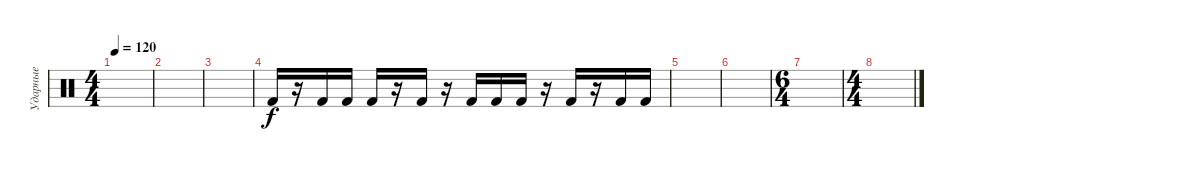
\track ("Ударные" "Ударные") {mute instrument percussion}
\staff {score}
\articulation defaults
\ts (4 4)
\tempo 120
\clef neutral
\ks c
|
|
|
"Kick (hit) 2".16{volume 16 balance 0} r.16 "Kick (hit) 2".16 "Kick (hit) 2".16 "Kick (hit) 2".16 r.16 "Kick (hit) 2".16 r.16 "Kick (hit) 2".16 "Kick (hit) 2".16 "Kick (hit) 2".16 r.16 "Kick (hit) 2".16 r.16 "Kick (hit) 2".16 "Kick (hit) 2".16 |
|
|
\ts (6 4)
|
\ts (4 4)
